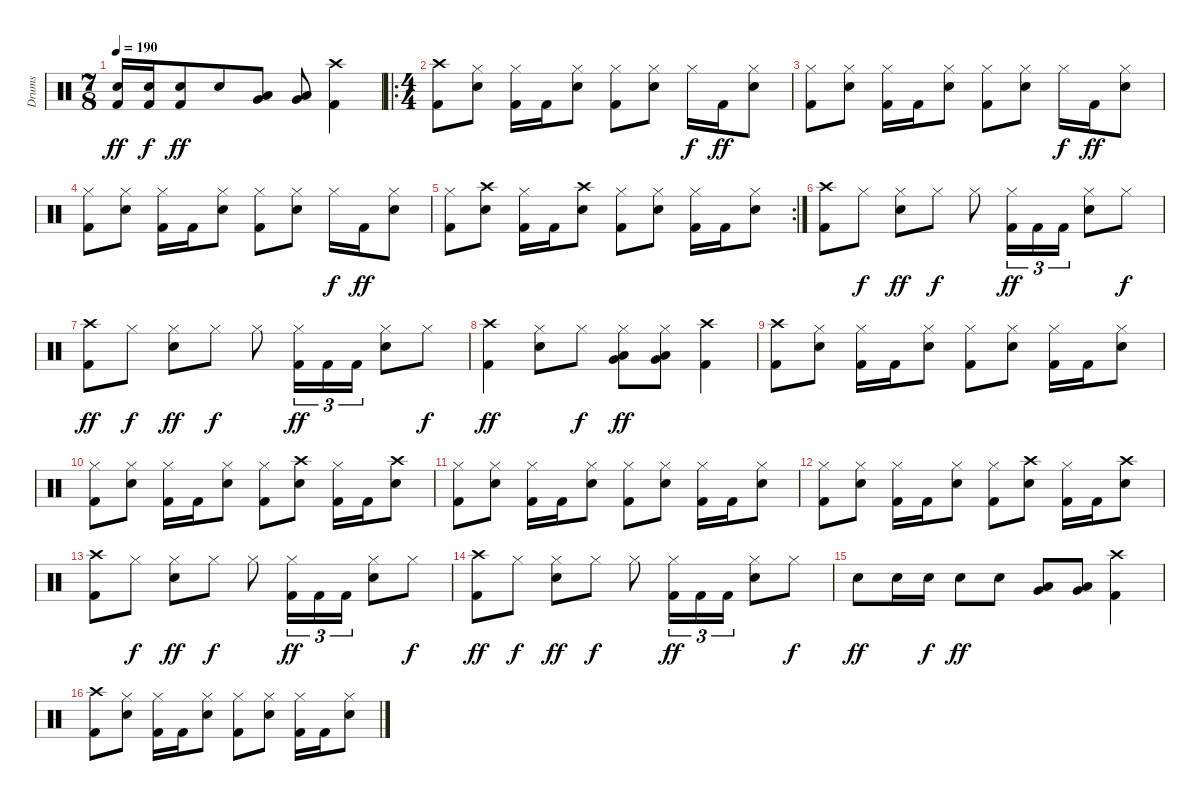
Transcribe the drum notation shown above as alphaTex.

\track ("Drums" "Drums") {instrument percussion}
\staff {score}
\articulation defaults
\ts (7 8)
\tempo 190
\clef neutral
\ks c
("Snare (hit) 2" "Kick (hit) 2").16{dy ff} ("Snare (hit) 2" "Kick (hit) 2").16{dy f} ("Snare (hit) 2" "Kick (hit) 2").8{dy ff} "Snare (hit) 2".8 ("Very Low Tom (hit)" "Low Floor Tom (hit)").8 ("Very Low Tom (hit)" "Low Floor Tom (hit)").8 ("Crash high (hit)" "Kick (hit) 2").4 |
\ro
\ts (4 4)
("Crash high (hit)" "Kick (hit) 2").8 ("Hi-Hat (closed)" "Snare (hit) 2").8 ("Hi-Hat (closed)" "Kick (hit) 2").16 "Kick (hit) 2".16 ("Hi-Hat (closed)" "Snare (hit) 2").8 ("Hi-Hat (closed)" "Kick (hit) 2").8 ("Hi-Hat (closed)" "Snare (hit) 2").8 "Hi-Hat (closed)".16{dy f} "Kick (hit) 2".16{dy ff} ("Hi-Hat (closed)" "Snare (hit) 2").8 |
("Hi-Hat (closed)" "Kick (hit) 2").8 ("Hi-Hat (closed)" "Snare (hit) 2").8 ("Hi-Hat (closed)" "Kick (hit) 2").16 "Kick (hit) 2".16 ("Hi-Hat (closed)" "Snare (hit) 2").8 ("Hi-Hat (closed)" "Kick (hit) 2").8 ("Hi-Hat (closed)" "Snare (hit) 2").8 "Hi-Hat (closed)".16{dy f} "Kick (hit) 2".16{dy ff} ("Hi-Hat (closed)" "Snare (hit) 2").8 |
("Hi-Hat (closed)" "Kick (hit) 2").8 ("Hi-Hat (closed)" "Snare (hit) 2").8 ("Hi-Hat (closed)" "Kick (hit) 2").16 "Kick (hit) 2".16 ("Hi-Hat (closed)" "Snare (hit) 2").8 ("Hi-Hat (closed)" "Kick (hit) 2").8 ("Hi-Hat (closed)" "Snare (hit) 2").8 "Hi-Hat (closed)".16{dy f} "Kick (hit) 2".16{dy ff} ("Hi-Hat (closed)" "Snare (hit) 2").8 |
\rc 2
("Hi-Hat (closed)" "Kick (hit) 2").8 ("Crash high (hit)" "Snare (hit) 2").8 ("Hi-Hat (closed)" "Kick (hit) 2").16 "Kick (hit) 2".16 ("Crash high (hit)" "Snare (hit) 2").8 ("Hi-Hat (closed)" "Kick (hit) 2").8 ("Hi-Hat (closed)" "Snare (hit) 2").8 ("Hi-Hat (closed)" "Kick (hit) 2").16 "Kick (hit) 2".16 ("Hi-Hat (closed)" "Snare (hit) 2").8 |
("Crash high (hit)" "Kick (hit) 2").8 "Hi-Hat (closed)".8{dy f} ("Hi-Hat (closed)" "Snare (hit) 2").8{dy ff} "Hi-Hat (closed)".8{dy f} "Hi-Hat (closed)".8 ("Hi-Hat (closed)" "Kick (hit) 2").16{tu (3 2) dy ff} "Kick (hit) 2".16{tu (3 2)} "Kick (hit) 2".16{tu (3 2)} ("Hi-Hat (closed)" "Snare (hit) 2").8 "Hi-Hat (closed)".8{dy f} |
("Crash high (hit)" "Kick (hit) 2").8{dy ff} "Hi-Hat (closed)".8{dy f} ("Hi-Hat (closed)" "Snare (hit) 2").8{dy ff} "Hi-Hat (closed)".8{dy f} "Hi-Hat (closed)".8 ("Hi-Hat (closed)" "Kick (hit) 2").16{tu (3 2) dy ff} "Kick (hit) 2".16{tu (3 2)} "Kick (hit) 2".16{tu (3 2)} ("Hi-Hat (closed)" "Snare (hit) 2").8 "Hi-Hat (closed)".8{dy f} |
("Crash high (hit)" "Kick (hit) 2").4{dy ff} ("Hi-Hat (closed)" "Snare (hit) 2").8 "Hi-Hat (closed)".8{dy f} ("Hi-Hat (closed)" "Very Low Tom (hit)" "Low Floor Tom (hit)").8{dy ff} ("Hi-Hat (closed)" "Very Low Tom (hit)" "Low Floor Tom (hit)").8 ("Crash high (hit)" "Kick (hit) 2").4 |
("Crash high (hit)" "Kick (hit) 2").8 ("Hi-Hat (closed)" "Snare (hit) 2").8 ("Hi-Hat (closed)" "Kick (hit) 2").16 "Kick (hit) 2".16 ("Hi-Hat (closed)" "Snare (hit) 2").8 ("Hi-Hat (closed)" "Kick (hit) 2").8 ("Hi-Hat (closed)" "Snare (hit) 2").8 ("Hi-Hat (closed)" "Kick (hit) 2").16 "Kick (hit) 2".16 ("Hi-Hat (closed)" "Snare (hit) 2").8 |
("Hi-Hat (closed)" "Kick (hit) 2").8 ("Hi-Hat (closed)" "Snare (hit) 2").8 ("Hi-Hat (closed)" "Kick (hit) 2").16 "Kick (hit) 2".16 ("Hi-Hat (closed)" "Snare (hit) 2").8 ("Hi-Hat (closed)" "Kick (hit) 2").8 ("Crash high (hit)" "Snare (hit) 2").8 ("Hi-Hat (closed)" "Kick (hit) 2").16 "Kick (hit) 2".16 ("Crash high (hit)" "Snare (hit) 2").8 |
("Hi-Hat (closed)" "Kick (hit) 2").8 ("Hi-Hat (closed)" "Snare (hit) 2").8 ("Hi-Hat (closed)" "Kick (hit) 2").16 "Kick (hit) 2".16 ("Hi-Hat (closed)" "Snare (hit) 2").8 ("Hi-Hat (closed)" "Kick (hit) 2").8 ("Hi-Hat (closed)" "Snare (hit) 2").8 ("Hi-Hat (closed)" "Kick (hit) 2").16 "Kick (hit) 2".16 ("Hi-Hat (closed)" "Snare (hit) 2").8 |
("Hi-Hat (closed)" "Kick (hit) 2").8 ("Hi-Hat (closed)" "Snare (hit) 2").8 ("Hi-Hat (closed)" "Kick (hit) 2").16 "Kick (hit) 2".16 ("Hi-Hat (closed)" "Snare (hit) 2").8 ("Hi-Hat (closed)" "Kick (hit) 2").8 ("Crash high (hit)" "Snare (hit) 2").8 ("Hi-Hat (closed)" "Kick (hit) 2").16 "Kick (hit) 2".16 ("Crash high (hit)" "Snare (hit) 2").8 |
("Crash high (hit)" "Kick (hit) 2").8 "Hi-Hat (closed)".8{dy f} ("Hi-Hat (closed)" "Snare (hit) 2").8{dy ff} "Hi-Hat (closed)".8{dy f} "Hi-Hat (closed)".8 ("Hi-Hat (closed)" "Kick (hit) 2").16{tu (3 2) dy ff} "Kick (hit) 2".16{tu (3 2)} "Kick (hit) 2".16{tu (3 2)} ("Hi-Hat (closed)" "Snare (hit) 2").8 "Hi-Hat (closed)".8{dy f} |
("Crash high (hit)" "Kick (hit) 2").8{dy ff} "Hi-Hat (closed)".8{dy f} ("Hi-Hat (closed)" "Snare (hit) 2").8{dy ff} "Hi-Hat (closed)".8{dy f} "Hi-Hat (closed)".8 ("Hi-Hat (closed)" "Kick (hit) 2").16{tu (3 2) dy ff} "Kick (hit) 2".16{tu (3 2)} "Kick (hit) 2".16{tu (3 2)} ("Hi-Hat (closed)" "Snare (hit) 2").8 "Hi-Hat (closed)".8{dy f} |
"Snare (hit) 2".8{dy ff} "Snare (hit) 2".16 "Snare (hit) 2".16{dy f} "Snare (hit) 2".8{dy ff} "Snare (hit) 2".8 ("Very Low Tom (hit)" "Low Floor Tom (hit)").8 ("Very Low Tom (hit)" "Low Floor Tom (hit)").8 ("Crash high (hit)" "Kick (hit) 2").4 |
("Crash high (hit)" "Kick (hit) 2").8 ("Hi-Hat (closed)" "Snare (hit) 2").8 ("Hi-Hat (closed)" "Kick (hit) 2").16 "Kick (hit) 2".16 ("Hi-Hat (closed)" "Snare (hit) 2").8 ("Hi-Hat (closed)" "Kick (hit) 2").8 ("Hi-Hat (closed)" "Snare (hit) 2").8 ("Hi-Hat (closed)" "Kick (hit) 2").16 "Kick (hit) 2".16 ("Hi-Hat (closed)" "Snare (hit) 2").8
